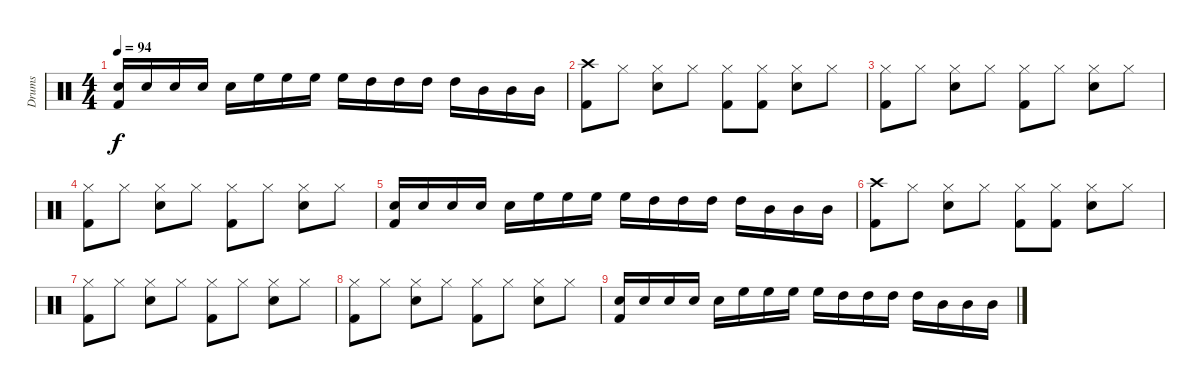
\track ("Drums" "Drums") {instrument percussion}
\staff {score}
\articulation defaults
\ts (4 4)
\tempo 94
\clef neutral
\ks c
("Snare (hit) 2" "Kick (hit) 2").16{dy f} "Snare (hit) 2".16 "Snare (hit) 2".16 "Snare (hit) 2".16 "Snare (hit) 2".16 "High Floor Tom (hit)".16 "High Floor Tom (hit)".16 "High Floor Tom (hit)".16 "High Floor Tom (hit)".16 "High Tom (hit)".16 "High Tom (hit)".16 "High Tom (hit)".16 "High Tom (hit)".16 "Mid Tom (hit)".16 "Mid Tom (hit)".16 "Mid Tom (hit)".16 |
("Crash high (hit)" "Kick (hit) 2").8 "Hi-Hat (closed)".8 ("Hi-Hat (closed)" "Snare (hit) 2").8 "Hi-Hat (closed)".8 ("Hi-Hat (closed)" "Kick (hit) 2").8 ("Hi-Hat (closed)" "Kick (hit) 2").8 ("Hi-Hat (closed)" "Snare (hit) 2").8 "Hi-Hat (closed)".8 |
("Hi-Hat (closed)" "Kick (hit) 2").8 "Hi-Hat (closed)".8 ("Hi-Hat (closed)" "Snare (hit) 2").8 "Hi-Hat (closed)".8 ("Hi-Hat (closed)" "Kick (hit) 2").8 "Hi-Hat (closed)".8 ("Hi-Hat (closed)" "Snare (hit) 2").8 "Hi-Hat (closed)".8 |
("Hi-Hat (closed)" "Kick (hit) 2").8 "Hi-Hat (closed)".8 ("Hi-Hat (closed)" "Snare (hit) 2").8 "Hi-Hat (closed)".8 ("Hi-Hat (closed)" "Kick (hit) 2").8 "Hi-Hat (closed)".8 ("Hi-Hat (closed)" "Snare (hit) 2").8 "Hi-Hat (closed)".8 |
("Snare (hit) 2" "Kick (hit) 2").16 "Snare (hit) 2".16 "Snare (hit) 2".16 "Snare (hit) 2".16 "Snare (hit) 2".16 "High Floor Tom (hit)".16 "High Floor Tom (hit)".16 "High Floor Tom (hit)".16 "High Floor Tom (hit)".16 "High Tom (hit)".16 "High Tom (hit)".16 "High Tom (hit)".16 "High Tom (hit)".16 "Mid Tom (hit)".16 "Mid Tom (hit)".16 "Mid Tom (hit)".16 |
("Crash high (hit)" "Kick (hit) 2").8 "Hi-Hat (closed)".8 ("Hi-Hat (closed)" "Snare (hit) 2").8 "Hi-Hat (closed)".8 ("Hi-Hat (closed)" "Kick (hit) 2").8 ("Hi-Hat (closed)" "Kick (hit) 2").8 ("Hi-Hat (closed)" "Snare (hit) 2").8 "Hi-Hat (closed)".8 |
("Hi-Hat (closed)" "Kick (hit) 2").8 "Hi-Hat (closed)".8 ("Hi-Hat (closed)" "Snare (hit) 2").8 "Hi-Hat (closed)".8 ("Hi-Hat (closed)" "Kick (hit) 2").8 "Hi-Hat (closed)".8 ("Hi-Hat (closed)" "Snare (hit) 2").8 "Hi-Hat (closed)".8 |
("Hi-Hat (closed)" "Kick (hit) 2").8 "Hi-Hat (closed)".8 ("Hi-Hat (closed)" "Snare (hit) 2").8 "Hi-Hat (closed)".8 ("Hi-Hat (closed)" "Kick (hit) 2").8 "Hi-Hat (closed)".8 ("Hi-Hat (closed)" "Snare (hit) 2").8 "Hi-Hat (closed)".8 |
("Snare (hit) 2" "Kick (hit) 2").16 "Snare (hit) 2".16 "Snare (hit) 2".16 "Snare (hit) 2".16 "Snare (hit) 2".16 "High Floor Tom (hit)".16 "High Floor Tom (hit)".16 "High Floor Tom (hit)".16 "High Floor Tom (hit)".16 "High Tom (hit)".16 "High Tom (hit)".16 "High Tom (hit)".16 "High Tom (hit)".16 "Mid Tom (hit)".16 "Mid Tom (hit)".16 "Mid Tom (hit)".16
